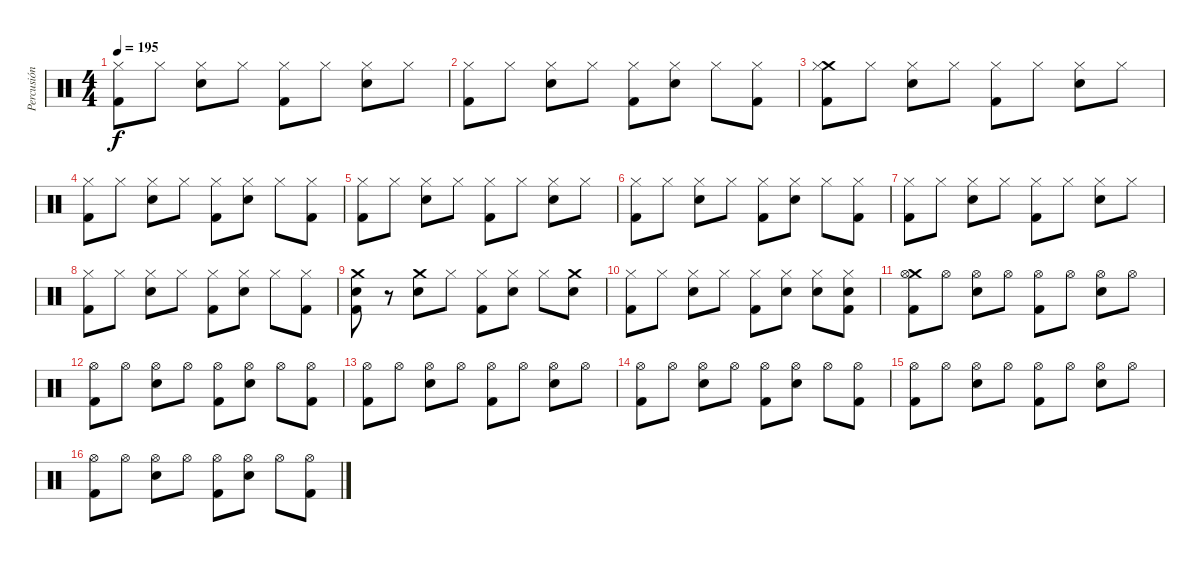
\track ("Percusión" "Percusión") {instrument percussion}
\staff {score}
\articulation defaults
\ts (4 4)
\tempo 195
\clef neutral
\ks c
("Hi-Hat (closed)" "Kick (hit) 2").8{dy f} "Hi-Hat (closed)".8 ("Hi-Hat (closed)" "Snare (hit) 2").8 "Hi-Hat (closed)".8 ("Hi-Hat (closed)" "Kick (hit) 2").8 "Hi-Hat (closed)".8 ("Hi-Hat (closed)" "Snare (hit) 2").8 "Hi-Hat (closed)".8 |
("Hi-Hat (closed)" "Kick (hit) 2").8 "Hi-Hat (closed)".8 ("Hi-Hat (closed)" "Snare (hit) 2").8 "Hi-Hat (closed)".8 ("Hi-Hat (closed)" "Kick (hit) 2").8 ("Hi-Hat (closed)" "Snare (hit) 2").8 "Hi-Hat (closed)".8 ("Hi-Hat (closed)" "Kick (hit) 2").8 |
("Crash medium (hit)" "Hi-Hat (closed)" "Kick (hit) 2").8 "Hi-Hat (closed)".8 ("Hi-Hat (closed)" "Snare (hit) 2").8 "Hi-Hat (closed)".8 ("Hi-Hat (closed)" "Kick (hit) 2").8 "Hi-Hat (closed)".8 ("Hi-Hat (closed)" "Snare (hit) 2").8 "Hi-Hat (closed)".8 |
("Hi-Hat (closed)" "Kick (hit) 2").8 "Hi-Hat (closed)".8 ("Hi-Hat (closed)" "Snare (hit) 2").8 "Hi-Hat (closed)".8 ("Hi-Hat (closed)" "Kick (hit) 2").8 ("Hi-Hat (closed)" "Snare (hit) 2").8 "Hi-Hat (closed)".8 ("Hi-Hat (closed)" "Kick (hit) 2").8 |
("Hi-Hat (closed)" "Kick (hit) 2").8 "Hi-Hat (closed)".8 ("Hi-Hat (closed)" "Snare (hit) 2").8 "Hi-Hat (closed)".8 ("Hi-Hat (closed)" "Kick (hit) 2").8 "Hi-Hat (closed)".8 ("Hi-Hat (closed)" "Snare (hit) 2").8 "Hi-Hat (closed)".8 |
("Hi-Hat (closed)" "Kick (hit) 2").8 "Hi-Hat (closed)".8 ("Hi-Hat (closed)" "Snare (hit) 2").8 "Hi-Hat (closed)".8 ("Hi-Hat (closed)" "Kick (hit) 2").8 ("Hi-Hat (closed)" "Snare (hit) 2").8 "Hi-Hat (closed)".8 ("Hi-Hat (closed)" "Kick (hit) 2").8 |
("Hi-Hat (closed)" "Kick (hit) 2").8 "Hi-Hat (closed)".8 ("Hi-Hat (closed)" "Snare (hit) 2").8 "Hi-Hat (closed)".8 ("Hi-Hat (closed)" "Kick (hit) 2").8 "Hi-Hat (closed)".8 ("Hi-Hat (closed)" "Snare (hit) 2").8 "Hi-Hat (closed)".8 |
("Hi-Hat (closed)" "Kick (hit) 2").8 "Hi-Hat (closed)".8 ("Hi-Hat (closed)" "Snare (hit) 2").8 "Hi-Hat (closed)".8 ("Hi-Hat (closed)" "Kick (hit) 2").8 ("Hi-Hat (closed)" "Snare (hit) 2").8 "Hi-Hat (closed)".8 ("Hi-Hat (closed)" "Kick (hit) 2").8 |
("Crash medium (hit)" "Snare (hit) 2" "Kick (hit) 2").8 r.8 ("Crash medium (hit)" "Snare (hit) 2").8 "Hi-Hat (closed)".8 ("Hi-Hat (closed)" "Kick (hit) 2").8 ("Hi-Hat (closed)" "Snare (hit) 2").8 "Hi-Hat (closed)".8 ("Crash medium (hit)" "Snare (hit) 2").8 |
("Hi-Hat (closed)" "Kick (hit) 2").8 "Hi-Hat (closed)".8 ("Hi-Hat (closed)" "Snare (hit) 2").8 "Hi-Hat (closed)".8 ("Hi-Hat (closed)" "Kick (hit) 2").8 ("Hi-Hat (closed)" "Snare (hit) 2").8 ("Hi-Hat (closed)" "Snare (hit) 2").8 ("Hi-Hat (closed)" "Snare (hit) 2" "Kick (hit) 2").8 |
("Crash medium (hit)" "Hi-Hat (open)" "Kick (hit) 2").8 "Hi-Hat (open)".8 ("Hi-Hat (open)" "Snare (hit) 2").8 "Hi-Hat (open)".8 ("Hi-Hat (open)" "Kick (hit) 2").8 "Hi-Hat (open)".8 ("Hi-Hat (open)" "Snare (hit) 2").8 "Hi-Hat (open)".8 |
("Hi-Hat (open)" "Kick (hit) 2").8 "Hi-Hat (open)".8 ("Hi-Hat (open)" "Snare (hit) 2").8 "Hi-Hat (open)".8 ("Hi-Hat (open)" "Kick (hit) 2").8 ("Hi-Hat (open)" "Snare (hit) 2").8 "Hi-Hat (open)".8 ("Hi-Hat (open)" "Kick (hit) 2").8 |
("Hi-Hat (open)" "Kick (hit) 2").8 "Hi-Hat (open)".8 ("Hi-Hat (open)" "Snare (hit) 2").8 "Hi-Hat (open)".8 ("Hi-Hat (open)" "Kick (hit) 2").8 "Hi-Hat (open)".8 ("Hi-Hat (open)" "Snare (hit) 2").8 "Hi-Hat (open)".8 |
("Hi-Hat (open)" "Kick (hit) 2").8 "Hi-Hat (open)".8 ("Hi-Hat (open)" "Snare (hit) 2").8 "Hi-Hat (open)".8 ("Hi-Hat (open)" "Kick (hit) 2").8 ("Hi-Hat (open)" "Snare (hit) 2").8 "Hi-Hat (open)".8 ("Hi-Hat (open)" "Kick (hit) 2").8 |
("Hi-Hat (open)" "Kick (hit) 2").8 "Hi-Hat (open)".8 ("Hi-Hat (open)" "Snare (hit) 2").8 "Hi-Hat (open)".8 ("Hi-Hat (open)" "Kick (hit) 2").8 "Hi-Hat (open)".8 ("Hi-Hat (open)" "Snare (hit) 2").8 "Hi-Hat (open)".8 |
("Hi-Hat (open)" "Kick (hit) 2").8 "Hi-Hat (open)".8 ("Hi-Hat (open)" "Snare (hit) 2").8 "Hi-Hat (open)".8 ("Hi-Hat (open)" "Kick (hit) 2").8 ("Hi-Hat (open)" "Snare (hit) 2").8 "Hi-Hat (open)".8 ("Hi-Hat (open)" "Kick (hit) 2").8
